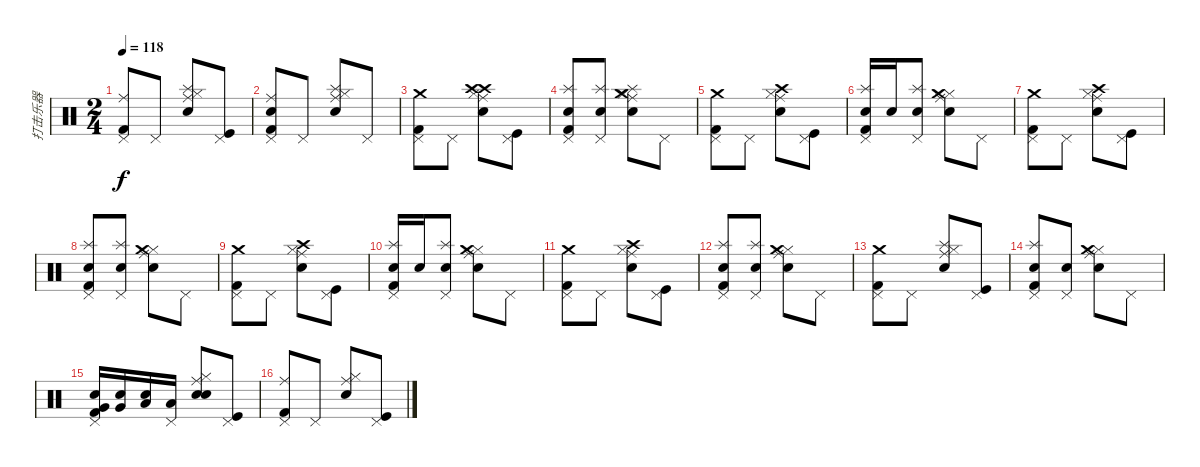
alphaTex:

\track ("打击乐器" "打击乐器") {instrument percussion}
\staff {score}
\articulation defaults
\ts (2 4)
\tempo 118
\clef neutral
\ks c
("Pedal Hi-Hat (hit)" "Ride (middle)" "Kick (hit) 2").8{dy f} "Pedal Hi-Hat (hit)".8 ("Ride (middle)" "Hi-Hat (closed)" "Splash (hit)" "Snare (hit) 2").8 ("Pedal Hi-Hat (hit)" "Kick (hit)").8 |
("Snare (hit) 2" "Pedal Hi-Hat (hit)" "Ride (middle)" "Kick (hit) 2").8 "Pedal Hi-Hat (hit)".8 ("Ride (middle)" "Hi-Hat (closed)" "Splash (hit)" "Snare (hit) 2").8 "Pedal Hi-Hat (hit)".8 |
("Pedal Hi-Hat (hit)" "Crash medium (hit)" "Kick (hit) 2").8 "Pedal Hi-Hat (hit)".8 ("Crash high (hit)" "Ride (middle)" "Hi-Hat (closed)" "Crash high (hit)" "Snare (hit) 2").8 ("Pedal Hi-Hat (hit)" "Kick (hit)").8 |
("Snare (hit) 2" "Pedal Hi-Hat (hit)" "Splash (hit)" "Kick (hit) 2").8 ("Snare (hit) 2" "Pedal Hi-Hat (hit)" "Splash (hit)").8 ("Splash (hit)" "Ride (middle)" "Hi-Hat (closed)" "Crash medium (hit)" "Snare (hit) 2").8 "Pedal Hi-Hat (hit)".8 |
("Pedal Hi-Hat (hit)" "Crash medium (hit)" "Kick (hit) 2").8 "Pedal Hi-Hat (hit)".8 ("Ride (middle)" "Hi-Hat (closed)" "Crash high (hit)" "Snare (hit) 2").8 ("Pedal Hi-Hat (hit)" "Kick (hit)").8 |
("Snare (hit) 2" "Pedal Hi-Hat (hit)" "Splash (hit)" "Kick (hit) 2").16 "Snare (hit) 2".16 ("Snare (hit) 2" "Pedal Hi-Hat (hit)" "Splash (hit)").8 ("Ride (middle)" "Hi-Hat (closed)" "Crash medium (hit)" "Snare (hit) 2").8 "Pedal Hi-Hat (hit)".8 |
("Pedal Hi-Hat (hit)" "Crash medium (hit)" "Kick (hit) 2").8 "Pedal Hi-Hat (hit)".8 ("Ride (middle)" "Hi-Hat (closed)" "Crash high (hit)" "Snare (hit) 2").8 ("Pedal Hi-Hat (hit)" "Kick (hit)").8 |
("Snare (hit) 2" "Pedal Hi-Hat (hit)" "Splash (hit)" "Kick (hit) 2").8 ("Snare (hit) 2" "Pedal Hi-Hat (hit)" "Splash (hit)").8 ("Ride (middle)" "Hi-Hat (closed)" "Crash medium (hit)" "Snare (hit) 2").8 "Pedal Hi-Hat (hit)".8 |
("Pedal Hi-Hat (hit)" "Crash medium (hit)" "Kick (hit) 2").8 "Pedal Hi-Hat (hit)".8 ("Ride (middle)" "Hi-Hat (closed)" "Crash high (hit)" "Snare (hit) 2").8 ("Pedal Hi-Hat (hit)" "Kick (hit)").8 |
("Snare (hit) 2" "Pedal Hi-Hat (hit)" "Splash (hit)" "Kick (hit) 2").16 "Snare (hit) 2".16 ("Snare (hit) 2" "Pedal Hi-Hat (hit)" "Splash (hit)").8 ("Ride (middle)" "Hi-Hat (closed)" "Crash medium (hit)" "Snare (hit) 2").8 "Pedal Hi-Hat (hit)".8 |
("Pedal Hi-Hat (hit)" "Crash medium (hit)" "Kick (hit) 2").8 "Pedal Hi-Hat (hit)".8 ("Ride (middle)" "Hi-Hat (closed)" "Crash high (hit)" "Snare (hit) 2").8 ("Pedal Hi-Hat (hit)" "Kick (hit)").8 |
("Snare (hit) 2" "Pedal Hi-Hat (hit)" "Splash (hit)" "Kick (hit) 2").8 ("Snare (hit) 2" "Pedal Hi-Hat (hit)" "Splash (hit)").8 ("Ride (middle)" "Hi-Hat (closed)" "Crash medium (hit)" "Snare (hit) 2").8 "Pedal Hi-Hat (hit)".8 |
("Pedal Hi-Hat (hit)" "Crash medium (hit)" "Kick (hit) 2").8 "Pedal Hi-Hat (hit)".8 ("Ride (middle)" "Hi-Hat (closed)" "Splash (hit)" "Snare (hit) 2").8 ("Pedal Hi-Hat (hit)" "Kick (hit)").8 |
("Snare (hit) 2" "Pedal Hi-Hat (hit)" "Splash (hit)" "Kick (hit) 2").8 ("Snare (hit) 2" "Pedal Hi-Hat (hit)").8 ("Ride (middle)" "Hi-Hat (closed)" "Crash medium (hit)" "Snare (hit) 2").8 "Pedal Hi-Hat (hit)".8 |
("Very Low Tom (hit)" "Pedal Hi-Hat (hit)" "Electric Snare (hit)" "Kick (hit) 2").16 ("Very Low Tom (hit)" "Electric Snare (hit)").16 ("Low Floor Tom (hit)" "Electric Snare (hit)").16 ("Low Floor Tom (hit)" "Pedal Hi-Hat (hit)").16 ("Ride (middle)" "Hi-Hat (closed)" "Electric Snare (hit)" "Snare (hit) 2").8 ("Pedal Hi-Hat (hit)" "Kick (hit)").8 |
("Pedal Hi-Hat (hit)" "Ride (middle)" "Kick (hit) 2").8 "Pedal Hi-Hat (hit)".8 ("Ride (middle)" "Hi-Hat (closed)" "Snare (hit) 2").8 ("Pedal Hi-Hat (hit)" "Kick (hit)").8
